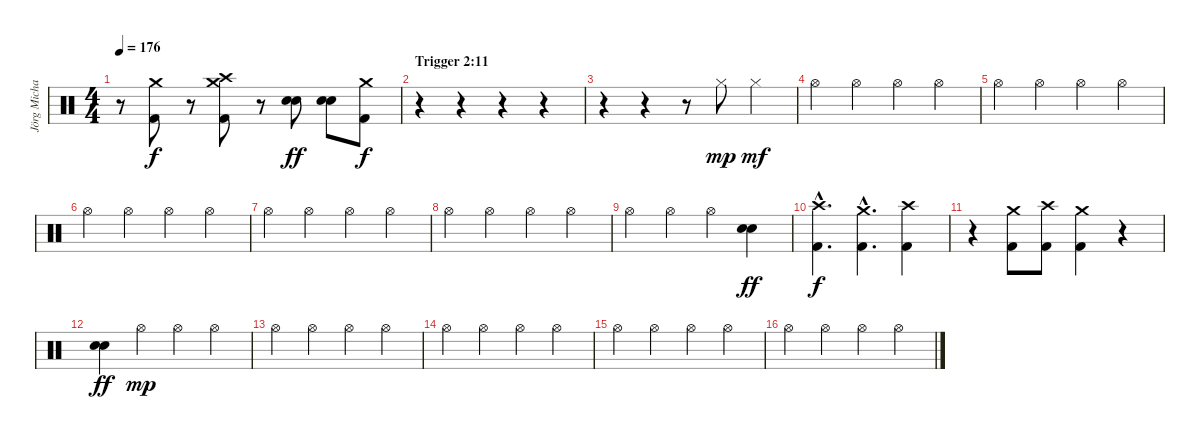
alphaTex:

\track ("Jörg Michael" "Jörg Micha") {instrument percussion}
\staff {score}
\articulation defaults
\ts (4 4)
\tempo 176
\clef neutral
\ks c
r.8{dy f} ("Kick (hit) 2" "Crash medium (hit)").8 r.8 ("Kick (hit) 2" "Crash high (hit)" "Crash medium (hit)").8 r.8 ("Snare (hit) 2" "Electric Snare (hit)").8{dy ff} ("Snare (hit) 2" "Electric Snare (hit)").8 ("Kick (hit) 2" "Crash medium (hit)").8{dy f} |
\section ("" "Trigger 2:11")
r.4 r.4 r.4 r.4 |
r.4 r.4 r.8 "Hi-Hat (closed)".8{dy mp} "Hi-Hat (closed)".4{dy mf} |
"Hi-Hat (open)".4 "Hi-Hat (open)".4 "Hi-Hat (open)".4 "Hi-Hat (open)".4 |
"Hi-Hat (open)".4 "Hi-Hat (open)".4 "Hi-Hat (open)".4 "Hi-Hat (open)".4 |
"Hi-Hat (open)".4 "Hi-Hat (open)".4 "Hi-Hat (open)".4 "Hi-Hat (open)".4 |
"Hi-Hat (open)".4 "Hi-Hat (open)".4 "Hi-Hat (open)".4 "Hi-Hat (open)".4 |
"Hi-Hat (open)".4 "Hi-Hat (open)".4 "Hi-Hat (open)".4 "Hi-Hat (open)".4 |
"Hi-Hat (open)".4 "Hi-Hat (open)".4 "Hi-Hat (open)".4 ("Snare (hit) 2" "Electric Snare (hit)").4{dy ff} |
("Kick (hit) 2"{hac} "Crash high (hit)"{hac}).4{d dy f} ("Kick (hit) 2"{hac} "Crash medium (hit)"{hac}).4{d} ("Kick (hit) 2" "Crash high (hit)").4 |
r.4 ("Kick (hit) 2" "Crash medium (hit)").8 ("Kick (hit) 2" "Crash high (hit)").8 ("Kick (hit) 2" "Crash medium (hit)").4 r.4 |
("Snare (hit) 2" "Electric Snare (hit)").4{dy ff} "Hi-Hat (open)".4{dy mp} "Hi-Hat (open)".4 "Hi-Hat (open)".4 |
"Hi-Hat (open)".4 "Hi-Hat (open)".4 "Hi-Hat (open)".4 "Hi-Hat (open)".4 |
"Hi-Hat (open)".4 "Hi-Hat (open)".4 "Hi-Hat (open)".4 "Hi-Hat (open)".4 |
"Hi-Hat (open)".4 "Hi-Hat (open)".4 "Hi-Hat (open)".4 "Hi-Hat (open)".4 |
"Hi-Hat (open)".4 "Hi-Hat (open)".4 "Hi-Hat (open)".4 "Hi-Hat (open)".4
